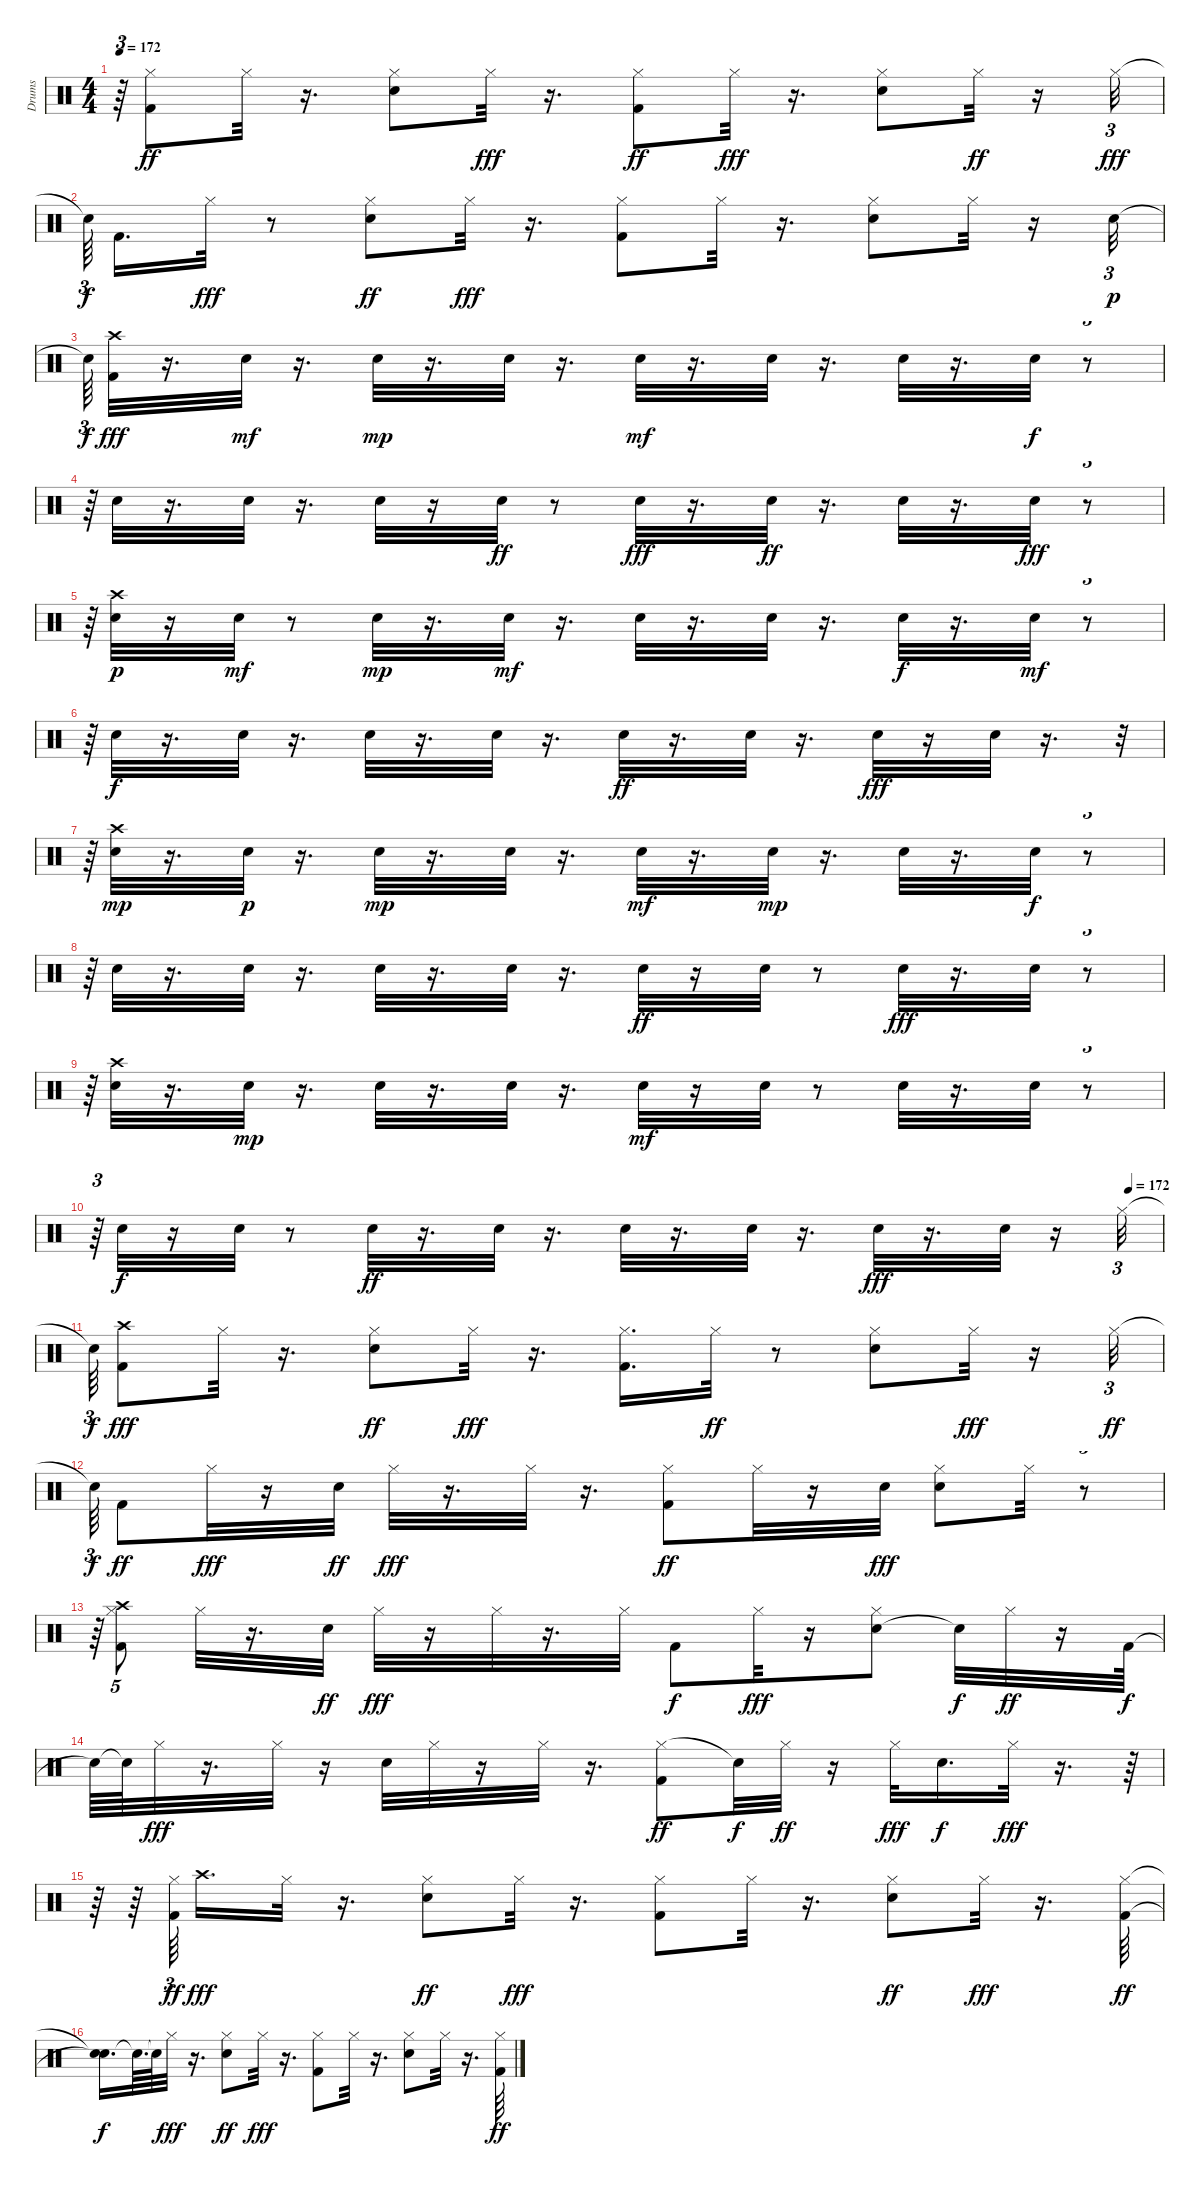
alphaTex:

\track ("Drums" "Drums") {instrument percussion}
\staff {score}
\articulation defaults
\ts (4 4)
\tempo 172
\clef neutral
\ks c
r.64{tu (3 2) dy fff} ("Hi-Hat (closed)" "Kick (hit) 2").8{dy ff} "Hi-Hat (closed)".32 r.16{d} ("Hi-Hat (closed)" "Electric Snare (hit)").8 "Hi-Hat (closed)".32{dy fff} r.16{d} ("Hi-Hat (closed)" "Kick (hit) 2").8{dy ff} "Hi-Hat (closed)".32{dy fff} r.16{d} ("Electric Snare (hit)" "Hi-Hat (closed)").8 "Hi-Hat (closed)".32{dy ff} r.16 "Hi-Hat (closed)".32{tu (3 2) dy fff} |
"Snare (hit)"{t}.64{tu (3 2) dy f beam splitsecondary} "Kick (hit) 2".16{d} "Hi-Hat (closed)".32{dy fff} r.8 ("Hi-Hat (closed)" "Electric Snare (hit)").8{dy ff} "Hi-Hat (closed)".32{dy fff} r.16{d} ("Kick (hit) 2" "Hi-Hat (closed)").8 "Hi-Hat (closed)".32 r.16{d} ("Electric Snare (hit)" "Hi-Hat (closed)").8 "Hi-Hat (closed)".32 r.16 "Snare (hit) 2".32{tu (3 2) dy p} |
"Snare (hit)"{t}.64{tu (3 2) dy f} ("Kick (hit) 2" "Crash high (hit)").32{dy fff} r.16{d} "Snare (hit) 2".32{dy mf} r.16{d} "Snare (hit) 2".32{dy mp} r.16{d} "Snare (hit) 2".32 r.16{d} "Snare (hit) 2".32{dy mf} r.16{d} "Snare (hit) 2".32 r.16{d} "Snare (hit) 2".32 r.16{d} "Snare (hit) 2".32{dy f} r.8{tu (3 2)} |
r.64{tu (3 2)} "Snare (hit) 2".32 r.16{d} "Snare (hit) 2".32 r.16{d} "Snare (hit) 2".32 r.16 "Snare (hit) 2".32{dy ff} r.8 "Snare (hit) 2".32{dy fff} r.16{d} "Snare (hit) 2".32{dy ff} r.16{d} "Snare (hit) 2".32 r.16{d} "Snare (hit) 2".32{dy fff} r.8{tu (3 2)} |
r.64{tu (3 2)} ("Crash high (hit)" "Snare (hit) 2").32{dy p} r.16 "Snare (hit) 2".32{dy mf} r.8 "Snare (hit) 2".32{dy mp} r.16{d} "Snare (hit) 2".32{dy mf} r.16{d} "Snare (hit) 2".32 r.16{d} "Snare (hit) 2".32 r.16{d} "Snare (hit) 2".32{dy f} r.16{d} "Snare (hit) 2".32{dy mf} r.8{tu (3 2)} |
r.64{tu (3 2)} "Snare (hit) 2".32{dy f} r.16{d} "Snare (hit) 2".32 r.16{d} "Snare (hit) 2".32 r.16{d} "Snare (hit) 2".32 r.16{d} "Snare (hit) 2".32{dy ff} r.16{d} "Snare (hit) 2".32 r.16{d} "Snare (hit) 2".32{dy fff} r.16 "Snare (hit) 2".32 r.16{d} r.32{tu (3 2)} |
r.64{tu (3 2)} ("Crash high (hit)" "Snare (hit) 2").32{dy mp} r.16{d} "Snare (hit) 2".32{dy p} r.16{d} "Snare (hit) 2".32{dy mp} r.16{d} "Snare (hit) 2".32 r.16{d} "Snare (hit) 2".32{dy mf} r.16{d} "Snare (hit) 2".32{dy mp} r.16{d} "Snare (hit) 2".32 r.16{d} "Snare (hit) 2".32{dy f} r.8{tu (3 2)} |
r.64{tu (3 2)} "Snare (hit) 2".32 r.16{d} "Snare (hit) 2".32 r.16{d} "Snare (hit) 2".32 r.16{d} "Snare (hit) 2".32 r.16{d} "Snare (hit) 2".32{dy ff} r.16 "Snare (hit) 2".32 r.8 "Snare (hit) 2".32{dy fff} r.16{d} "Snare (hit) 2".32 r.8{tu (3 2)} |
r.64{tu (3 2)} ("Snare (hit) 2" "Crash high (hit)").32 r.16{d} "Snare (hit) 2".32{dy mp} r.16{d} "Snare (hit) 2".32 r.16{d} "Snare (hit) 2".32 r.16{d} "Snare (hit) 2".32{dy mf} r.16 "Snare (hit) 2".32 r.8 "Snare (hit) 2".32 r.16{d} "Snare (hit) 2".32 r.8{tu (3 2)} |
\tempo (172 0.96875)
r.64{tu (3 2)} "Snare (hit) 2".32{dy f} r.16 "Snare (hit) 2".32 r.8 "Snare (hit) 2".32{dy ff} r.16{d} "Snare (hit) 2".32 r.16{d} "Snare (hit) 2".32 r.16{d} "Snare (hit) 2".32 r.16{d} "Snare (hit) 2".32{dy fff} r.16{d} "Snare (hit) 2".32 r.16 "Hi-Hat (closed)".32{tu (3 2)} |
"Snare (hit)"{t}.64{tu (3 2) dy f} ("Kick (hit) 2" "Crash high (hit)").8{dy fff} "Hi-Hat (closed)".32 r.16{d} ("Hi-Hat (closed)" "Electric Snare (hit)").8{dy ff} "Hi-Hat (closed)".32{dy fff} r.16{d} ("Kick (hit) 2" "Hi-Hat (closed)").16{d} "Hi-Hat (closed)".32{dy ff} r.8 ("Hi-Hat (closed)" "Electric Snare (hit)").8 "Hi-Hat (closed)".32{dy fff} r.16 "Hi-Hat (closed)".32{tu (3 2) dy ff} |
"Snare (hit)"{t}.64{tu (3 2) dy f} "Kick (hit) 2".8{dy ff} "Hi-Hat (closed)".32{dy fff} r.16 "Electric Snare (hit)".32{dy ff} "Hi-Hat (closed)".32{dy fff} r.16{d} "Hi-Hat (closed)".32 r.16{d} ("Hi-Hat (closed)" "Kick (hit) 2").8{dy ff} "Hi-Hat (closed)".32 r.16 "Snare (hit)".32{dy fff} ("Electric Snare (hit)" "Hi-Hat (closed)").8 "Hi-Hat (closed)".32 r.8{tu (3 2)} |
r.64{tu (3 2)} ("Kick (hit) 2" "Hi-Hat (closed)" "Crash high (hit)").8{tu (5 4)} "Hi-Hat (closed)".32 r.16{d} "Electric Snare (hit)".32{dy ff} "Hi-Hat (closed)".32{dy fff} r.16 "Hi-Hat (closed)".32 r.16{d} "Hi-Hat (closed)".32 "Kick (hit) 2".8{dy f} "Hi-Hat (closed)".32{dy fff} r.16 ("Electric Snare (hit)" "Hi-Hat (closed)").8 "Snare (hit)"{t}.32{dy f} "Hi-Hat (closed)".32{dy ff} r.16 "Kick (hit) 2".64{dy f} |
"Snare (hit)"{t}.64 "Snare (hit)"{t}.64 "Hi-Hat (closed)".32{dy fff} r.16{d} "Hi-Hat (closed)".32 r.16 "Electric Snare (hit)".32 "Hi-Hat (closed)".32 r.16 "Hi-Hat (closed)".32 r.16{d} ("Hi-Hat (closed)" "Kick (hit) 2").8{dy ff} "Snare (hit)"{t}.32{dy f} "Hi-Hat (closed)".32{dy ff} r.16 "Hi-Hat (closed)".32{dy fff} "Electric Snare (hit)".16{d dy f} "Hi-Hat (closed)".32{dy fff} r.16{d} r.64 |
r.64 r.64 ("Hi-Hat (closed)" "Kick (hit) 2").64{tu (3 2) dy ff beam splitsecondary} "Crash high (hit)".16{d dy fff} "Hi-Hat (closed)".32 r.16{d} ("Hi-Hat (closed)" "Electric Snare (hit)").8{dy ff} "Hi-Hat (closed)".32{dy fff} r.16{d} ("Kick (hit) 2" "Hi-Hat (closed)").8 "Hi-Hat (closed)".32 r.16{d} ("Hi-Hat (closed)" "Electric Snare (hit)").8{dy ff} "Hi-Hat (closed)".32{dy fff} r.16{d} ("Hi-Hat (closed)" "Kick (hit) 2").64{dy ff} |
("Snare (hit)"{t} "Snare (hit)"{t}).16{d dy f} "Snare (hit)"{t}.64{d} "Snare (hit)"{t}.64 "Hi-Hat (closed)".32{dy fff} r.16{d} ("Electric Snare (hit)" "Hi-Hat (closed)").8{dy ff} "Hi-Hat (closed)".32{dy fff} r.16{d} ("Kick (hit) 2" "Hi-Hat (closed)").8 "Hi-Hat (closed)".32 r.16{d} ("Electric Snare (hit)" "Hi-Hat (closed)").8 "Hi-Hat (closed)".32 r.16{d} ("Hi-Hat (closed)" "Kick (hit) 2").64{dy ff}
